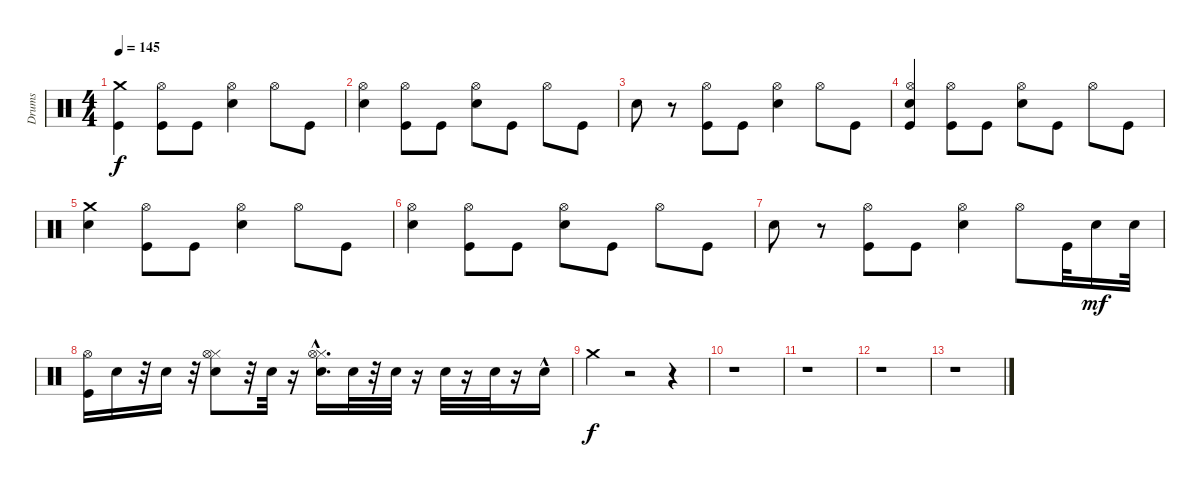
\track ("Drums" "Drums") {instrument percussion}
\staff {score}
\articulation defaults
\ts (4 4)
\tempo 145
\clef neutral
\ks c
("Kick (hit)" "Crash medium (hit)").4{dy f} ("Hi-Hat (open)" "Kick (hit)").8 "Kick (hit)".8 ("Hi-Hat (open)" "Electric Snare (hit)").4 "Hi-Hat (open)".8 "Kick (hit)".8 |
("Hi-Hat (open)" "Electric Snare (hit)").4 ("Kick (hit)" "Hi-Hat (open)").8 "Kick (hit)".8 ("Hi-Hat (open)" "Electric Snare (hit)").8 "Kick (hit)".8 "Hi-Hat (open)".8 "Kick (hit)".8 |
"Electric Snare (hit)".8 r.8 ("Hi-Hat (open)" "Kick (hit)").8 "Kick (hit)".8 ("Hi-Hat (open)" "Electric Snare (hit)").4 "Hi-Hat (open)".8 "Kick (hit)".8 |
("Kick (hit)" "Hi-Hat (open)" "Electric Snare (hit)").4 ("Kick (hit)" "Hi-Hat (open)").8 "Kick (hit)".8 ("Hi-Hat (open)" "Electric Snare (hit)").8 "Kick (hit)".8 "Hi-Hat (open)".8 "Kick (hit)".8 |
("Crash medium (hit)" "Electric Snare (hit)").4 ("Hi-Hat (open)" "Kick (hit)").8 "Kick (hit)".8 ("Hi-Hat (open)" "Electric Snare (hit)").4 "Hi-Hat (open)".8 "Kick (hit)".8 |
("Hi-Hat (open)" "Electric Snare (hit)").4 ("Kick (hit)" "Hi-Hat (open)").8 "Kick (hit)".8 ("Hi-Hat (open)" "Electric Snare (hit)").8 "Kick (hit)".8 "Hi-Hat (open)".8 "Kick (hit)".8 |
"Electric Snare (hit)".8 r.8 ("Kick (hit)" "Hi-Hat (open)").8 "Kick (hit)".8 ("Hi-Hat (open)" "Electric Snare (hit)").4 "Hi-Hat (open)".8 "Kick (hit)".32 "Electric Snare (hit)".16{dy mf} "Electric Snare (hit)".32 |
("Kick (hit)" "Hi-Hat (open)").16 "Electric Snare (hit)".16 r.32 "Electric Snare (hit)".16 r.32 ("Hi-Hat (closed)" "Hi-Hat (open)" "Electric Snare (hit)").8 r.32 "Electric Snare (hit)".32 r.16 ("Hi-Hat (closed)" "Hi-Hat (open)" "Electric Snare (hit)"{hac}).16{d} "Electric Snare (hit)".32 r.32 "Electric Snare (hit)".32 r.16 "Electric Snare (hit)".32 r.16 "Electric Snare (hit)".32 r.16 "Electric Snare (hit)"{hac}.16 |
"Crash medium (hit)".4{dy f} r.2 r.4 |
r.1 |
r.1 |
r.1 |
r.1
